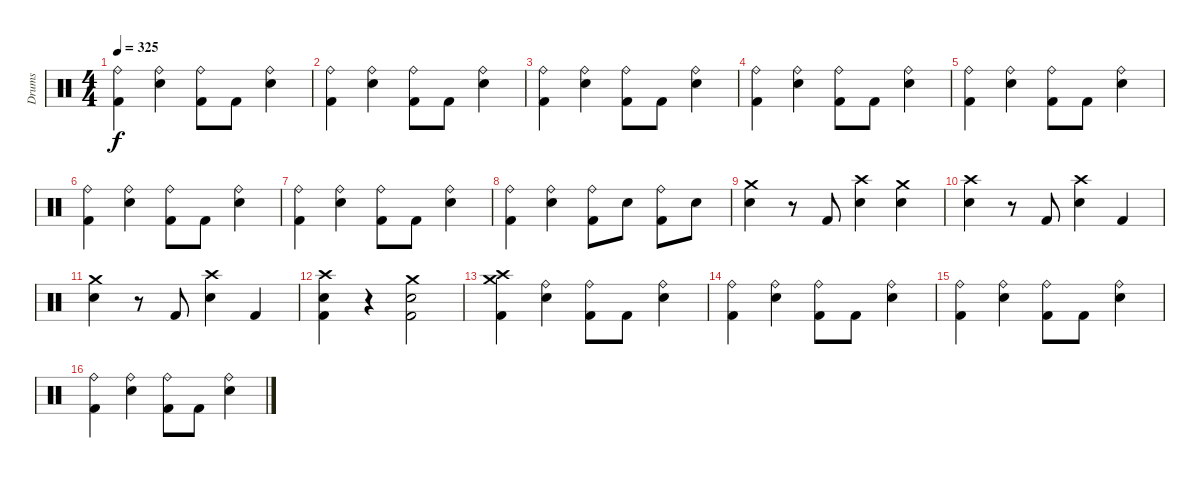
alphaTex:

\track ("Drums" "Drums") {instrument percussion}
\staff {score}
\articulation defaults
\ts (4 4)
\tempo 325
\clef neutral
\ks c
("Ride (bell)" "Kick (hit) 2").4{dy f} ("Electric Snare (hit)" "Ride (bell)").4 ("Kick (hit) 2" "Ride (bell)").8 "Kick (hit) 2".8 ("Electric Snare (hit)" "Ride (bell)").4 |
("Kick (hit) 2" "Ride (bell)").4 ("Electric Snare (hit)" "Ride (bell)").4 ("Kick (hit) 2" "Ride (bell)").8 "Kick (hit) 2".8 ("Electric Snare (hit)" "Ride (bell)").4 |
("Kick (hit) 2" "Ride (bell)").4 ("Electric Snare (hit)" "Ride (bell)").4 ("Kick (hit) 2" "Ride (bell)").8 "Kick (hit) 2".8 ("Electric Snare (hit)" "Ride (bell)").4 |
("Kick (hit) 2" "Ride (bell)").4 ("Electric Snare (hit)" "Ride (bell)").4 ("Kick (hit) 2" "Ride (bell)").8 "Kick (hit) 2".8 ("Electric Snare (hit)" "Ride (bell)").4 |
("Ride (bell)" "Kick (hit) 2").4 ("Electric Snare (hit)" "Ride (bell)").4 ("Kick (hit) 2" "Ride (bell)").8 "Kick (hit) 2".8 ("Electric Snare (hit)" "Ride (bell)").4 |
("Kick (hit) 2" "Ride (bell)").4 ("Electric Snare (hit)" "Ride (bell)").4 ("Kick (hit) 2" "Ride (bell)").8 "Kick (hit) 2".8 ("Electric Snare (hit)" "Ride (bell)").4 |
("Kick (hit) 2" "Ride (bell)").4 ("Electric Snare (hit)" "Ride (bell)").4 ("Kick (hit) 2" "Ride (bell)").8 "Kick (hit) 2".8 ("Electric Snare (hit)" "Ride (bell)").4 |
("Ride (bell)" "Kick (hit) 2").4 ("Electric Snare (hit)" "Ride (bell)").4 ("Kick (hit) 2" "Ride (bell)").8 "Electric Snare (hit)".8 ("Kick (hit) 2" "Ride (bell)").8 "Electric Snare (hit)".8 |
("Electric Snare (hit)" "Crash medium (hit)").4 r.8 "Kick (hit) 2".8 ("Crash high (hit)" "Electric Snare (hit)").4 ("Crash medium (hit)" "Electric Snare (hit)").4 |
("Electric Snare (hit)" "Crash high (hit)").4 r.8 "Kick (hit) 2".8 ("Crash high (hit)" "Electric Snare (hit)").4 "Kick (hit) 2".4 |
("Electric Snare (hit)" "Crash medium (hit)").4 r.8 "Kick (hit) 2".8 ("Crash high (hit)" "Electric Snare (hit)").4 "Kick (hit) 2".4 |
("Electric Snare (hit)" "Kick (hit) 2" "Crash high (hit)").4 r.4 ("Electric Snare (hit)" "Kick (hit) 2" "Crash medium (hit)").2 |
("Kick (hit) 2" "Crash high (hit)" "Crash medium (hit)").4 ("Electric Snare (hit)" "Ride (bell)").4 ("Kick (hit) 2" "Ride (bell)").8 "Kick (hit) 2".8 ("Electric Snare (hit)" "Ride (bell)").4 |
("Kick (hit) 2" "Ride (bell)").4 ("Electric Snare (hit)" "Ride (bell)").4 ("Kick (hit) 2" "Ride (bell)").8 "Kick (hit) 2".8 ("Electric Snare (hit)" "Ride (bell)").4 |
("Kick (hit) 2" "Ride (bell)").4 ("Electric Snare (hit)" "Ride (bell)").4 ("Kick (hit) 2" "Ride (bell)").8 "Kick (hit) 2".8 ("Electric Snare (hit)" "Ride (bell)").4 |
("Kick (hit) 2" "Ride (bell)").4 ("Electric Snare (hit)" "Ride (bell)").4 ("Kick (hit) 2" "Ride (bell)").8 "Kick (hit) 2".8 ("Electric Snare (hit)" "Ride (bell)").4
